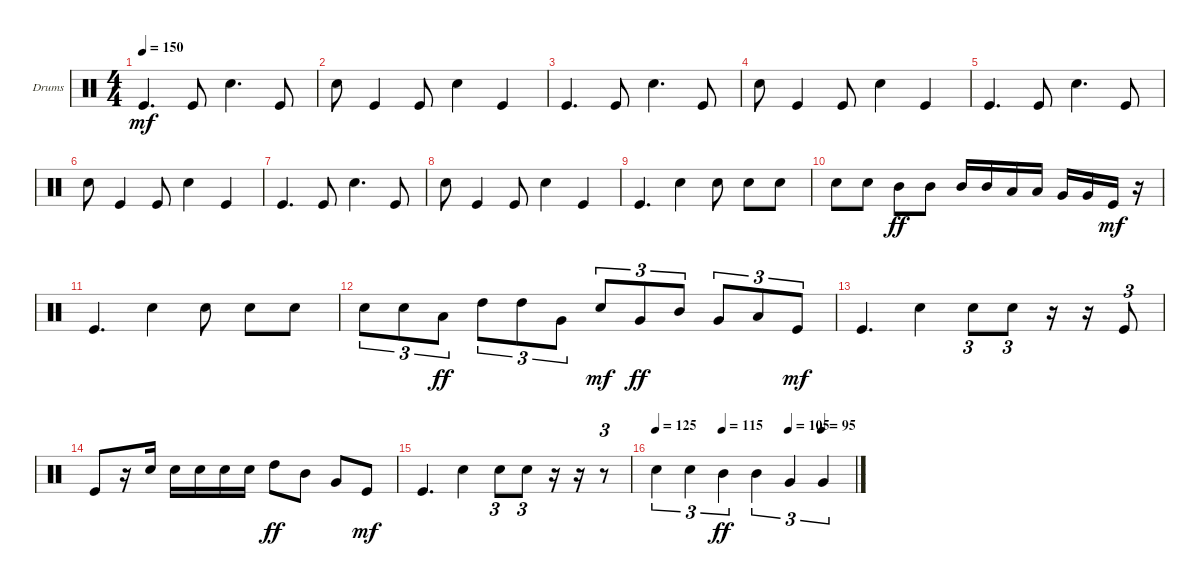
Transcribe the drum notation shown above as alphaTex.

\defaultSystemsLayout 4
\bracketExtendMode groupsimilarinstruments
\firstSystemTrackNameOrientation horizontal
\otherSystemsTrackNameOrientation horizontal
\track ("Drumkit" "Drums") {instrument percussion}
\staff {score}
\articulation defaults
\ts (4 4)
\tempo 150
\clef neutral
\scale
0.333333
\ks c "Kick (hit)".4{d dy mf} "Kick (hit)".8 "Snare (hit) 2".4{d} "Kick (hit)".8
|
\scale
0.333333 "Snare (hit) 2".8 "Kick (hit)".4 "Kick (hit)".8 "Snare (hit) 2".4 "Kick (hit)".4 |
\scale
0.333333 "Kick (hit)".4{d} "Kick (hit)".8 "Snare (hit) 2".4{d} "Kick (hit)".8 |
\scale
0.333333 "Snare (hit) 2".8 "Kick (hit)".4 "Kick (hit)".8 "Snare (hit) 2".4 "Kick (hit)".4 |
\scale
0.333333 "Kick (hit)".4{d} "Kick (hit)".8 "Snare (hit) 2".4{d} "Kick (hit)".8 |
\scale
0.333333 "Snare (hit) 2".8 "Kick (hit)".4 "Kick (hit)".8 "Snare (hit) 2".4 "Kick (hit)".4 |
\scale
0.333333 "Kick (hit)".4{d} "Kick (hit)".8 "Snare (hit) 2".4{d} "Kick (hit)".8 |
\scale
0.333333 "Snare (hit) 2".8 "Kick (hit)".4 "Kick (hit)".8 "Snare (hit) 2".4 "Kick (hit)".4 |
\scale
0.333333 "Kick (hit)".4{d} "Snare (hit) 2".4 "Snare (hit) 2".8 "Snare (hit) 2".8 "Snare (hit) 2".8 |
\scale
0.333333 "Snare (hit) 2".8 "Snare (hit) 2".8 "Mid Tom (hit)".8{dy ff} "Mid Tom (hit)".8 "Mid Tom (hit)".16 "Mid Tom (hit)".16 "Low Tom (hit)".16 "Low Tom (hit)".16 "Very Low Tom (hit)".16 "Very Low Tom (hit)".16 "Kick (hit)".16{dy mf} r.16 |
\scale
0.333333 "Kick (hit)".4{d} "Snare (hit) 2".4 "Snare (hit) 2".8 "Snare (hit) 2".8 "Snare (hit) 2".8 |
\scale
0.333333 "Snare (hit) 2".8{tu (3 2)} "Snare (hit) 2".8{tu (3 2)} "Low Tom (hit)".8{tu (3 2) dy ff} "High Tom (hit)".8{tu (3 2)} "High Tom (hit)".8{tu (3 2)} "Very Low Tom (hit)".8{tu (3 2)} "Snare (hit) 2".8{tu (3 2) dy mf} "Very Low Tom (hit)".8{tu (3 2) dy ff} "Mid Tom (hit)".8{tu (3 2)} "Very Low Tom (hit)".8{tu (3 2)} "Low Tom (hit)".8{tu (3 2)} "Kick (hit)".8{tu (3 2) dy mf} |
\scale
0.333333 "Kick (hit)".4{d} "Snare (hit) 2".4 "Snare (hit) 2".8{tu (3 2)} "Snare (hit) 2".8{tu (3 2)} r.16 r.16 "Kick (hit)".8{tu (3 2)} |
\scale
0.333333 "Kick (hit)".8 r.16 "Snare (hit) 2".16 "Snare (hit) 2".16 "Snare (hit) 2".16 "Snare (hit) 2".16 "Snare (hit) 2".16 "High Tom (hit)".8{dy ff} "Mid Tom (hit)".8 "Very Low Tom (hit)".8 "Kick (hit)".8{dy mf} |
\scale
0.333333 "Kick (hit)".4{d} "Snare (hit) 2".4 "Snare (hit) 2".8{tu (3 2)} "Snare (hit) 2".8{tu (3 2)} r.16 r.16 r.8{tu (3 2)} |
\tempo 125
\tempo (115 0.333333)
\tempo (105 0.666667)
\tempo (95 0.833333)
\scale
0.333333 "Snare (hit) 2".4{tu (3 2)} "Snare (hit) 2".4{tu (3 2)} "Mid Tom (hit)".4{tu (3 2) dy ff} "Mid Tom (hit)".4{tu (3 2)} "Very Low Tom (hit)".4{tu (3 2)} "Very Low Tom (hit)".4{tu (3 2)}
